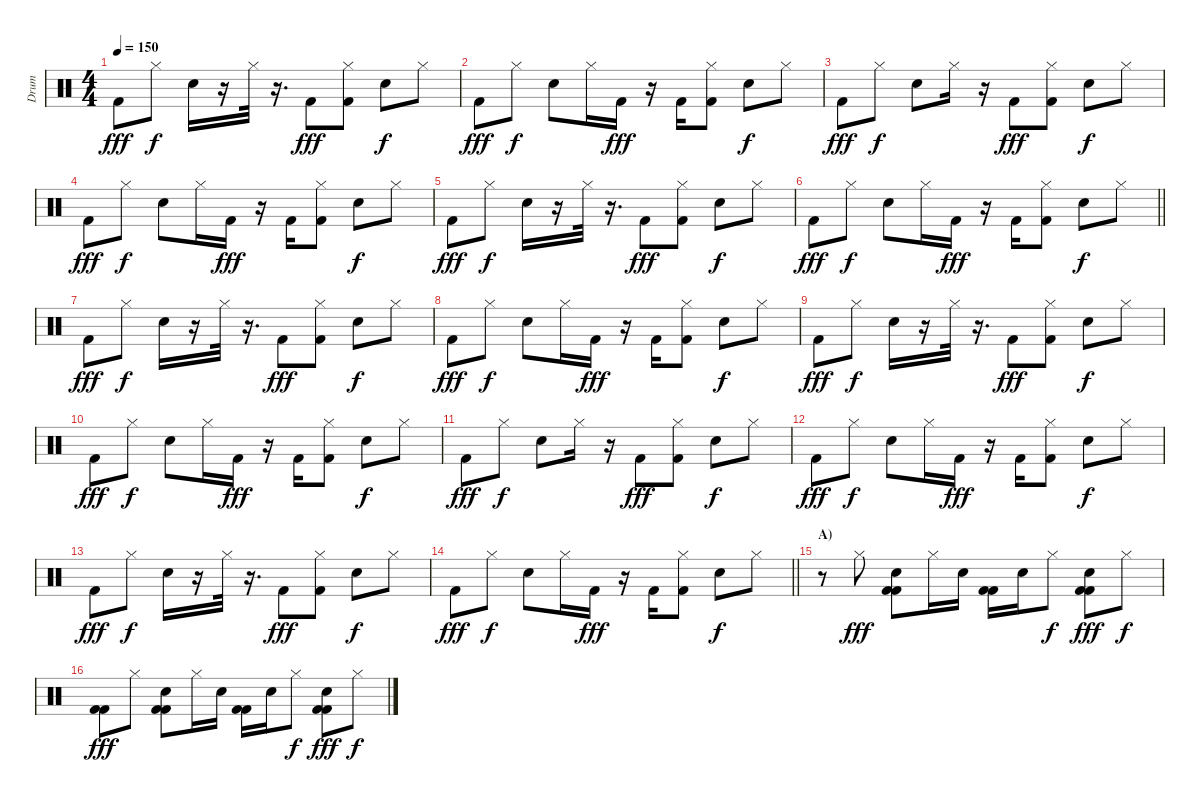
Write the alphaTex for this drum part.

\track ("Drum" "Drum") {instrument percussion}
\staff {score}
\articulation defaults
\ts (4 4)
\tempo 150
\clef neutral
\ks c "Kick (hit) 2".8{dy fff} "Hi-Hat (closed)".8{dy f} "Electric Snare (hit)".16
r.16 "Hi-Hat (closed)".32 r.16{d} "Kick (hit) 2".8{dy fff} ("Hi-Hat (closed)" "Kick (hit) 2").8 "Electric Snare (hit)".8{dy f} "Hi-Hat (closed)".8 |
"Kick (hit) 2".8{dy fff} "Hi-Hat (closed)".8{dy f} "Electric Snare (hit)".8 "Hi-Hat (closed)".16 "Kick (hit) 2".16{dy fff} r.16 "Kick (hit) 2".16 ("Hi-Hat (closed)" "Kick (hit) 2").8 "Electric Snare (hit)".8{dy f} "Hi-Hat (closed)".8 |
"Kick (hit) 2".8{dy fff} "Hi-Hat (closed)".8{dy f} "Electric Snare (hit)".8 "Hi-Hat (closed)".16 r.16 "Kick (hit) 2".8{dy fff} ("Hi-Hat (closed)" "Kick (hit) 2").8 "Electric Snare (hit)".8{dy f} "Hi-Hat (closed)".8 |
"Kick (hit) 2".8{dy fff} "Hi-Hat (closed)".8{dy f} "Electric Snare (hit)".8 "Hi-Hat (closed)".16 "Kick (hit) 2".16{dy fff} r.16 "Kick (hit) 2".16 ("Hi-Hat (closed)" "Kick (hit) 2").8 "Electric Snare (hit)".8{dy f} "Hi-Hat (closed)".8 |
"Kick (hit) 2".8{dy fff} "Hi-Hat (closed)".8{dy f} "Electric Snare (hit)".16 r.16 "Hi-Hat (closed)".32 r.16{d} "Kick (hit) 2".8{dy fff} ("Hi-Hat (closed)" "Kick (hit) 2").8 "Electric Snare (hit)".8{dy f} "Hi-Hat (closed)".8 |
\barLineRight lightlight "Kick (hit) 2".8{dy fff} "Hi-Hat (closed)".8{dy f} "Electric Snare (hit)".8 "Hi-Hat (closed)".16 "Kick (hit) 2".16{dy fff}
r.16 "Kick (hit) 2".16 ("Hi-Hat (closed)" "Kick (hit) 2").8 "Electric Snare (hit)".8{dy f} "Hi-Hat (closed)".8 |
"Kick (hit) 2".8{dy fff} "Hi-Hat (closed)".8{dy f} "Electric Snare (hit)".16 r.16 "Hi-Hat (closed)".32 r.16{d} "Kick (hit) 2".8{dy fff} ("Hi-Hat (closed)" "Kick (hit) 2").8 "Electric Snare (hit)".8{dy f} "Hi-Hat (closed)".8 |
"Kick (hit) 2".8{dy fff} "Hi-Hat (closed)".8{dy f} "Electric Snare (hit)".8 "Hi-Hat (closed)".16 "Kick (hit) 2".16{dy fff} r.16 "Kick (hit) 2".16 ("Hi-Hat (closed)" "Kick (hit) 2").8 "Electric Snare (hit)".8{dy f} "Hi-Hat (closed)".8 |
"Kick (hit) 2".8{dy fff} "Hi-Hat (closed)".8{dy f} "Electric Snare (hit)".16 r.16 "Hi-Hat (closed)".32 r.16{d} "Kick (hit) 2".8{dy fff} ("Hi-Hat (closed)" "Kick (hit) 2").8 "Electric Snare (hit)".8{dy f} "Hi-Hat (closed)".8 |
"Kick (hit) 2".8{dy fff} "Hi-Hat (closed)".8{dy f} "Electric Snare (hit)".8 "Hi-Hat (closed)".16 "Kick (hit) 2".16{dy fff} r.16 "Kick (hit) 2".16 ("Hi-Hat (closed)" "Kick (hit) 2").8 "Electric Snare (hit)".8{dy f} "Hi-Hat (closed)".8 |
"Kick (hit) 2".8{dy fff} "Hi-Hat (closed)".8{dy f} "Electric Snare (hit)".8 "Hi-Hat (closed)".16 r.16 "Kick (hit) 2".8{dy fff} ("Hi-Hat (closed)" "Kick (hit) 2").8 "Electric Snare (hit)".8{dy f} "Hi-Hat (closed)".8 |
"Kick (hit) 2".8{dy fff} "Hi-Hat (closed)".8{dy f} "Electric Snare (hit)".8 "Hi-Hat (closed)".16 "Kick (hit) 2".16{dy fff} r.16 "Kick (hit) 2".16 ("Hi-Hat (closed)" "Kick (hit) 2").8 "Electric Snare (hit)".8{dy f} "Hi-Hat (closed)".8 |
"Kick (hit) 2".8{dy fff} "Hi-Hat (closed)".8{dy f} "Electric Snare (hit)".16 r.16 "Hi-Hat (closed)".32 r.16{d} "Kick (hit) 2".8{dy fff} ("Hi-Hat (closed)" "Kick (hit) 2").8 "Electric Snare (hit)".8{dy f} "Hi-Hat (closed)".8 |
\barLineRight lightlight "Kick (hit) 2".8{dy fff} "Hi-Hat (closed)".8{dy f} "Electric Snare (hit)".8 "Hi-Hat (closed)".16 "Kick (hit) 2".16{dy fff}
r.16 "Kick (hit) 2".16 ("Hi-Hat (closed)" "Kick (hit) 2").8 "Electric Snare (hit)".8{dy f} "Hi-Hat (closed)".8 |
\section ("" "A)")
r.8 "Hi-Hat (closed)".8{dy fff} ("Kick (hit) 2" "Electric Snare (hit)" "Kick (hit) 2").8 "Hi-Hat (closed)".16 "Electric Snare (hit)".16 ("Kick (hit) 2" "Kick (hit) 2").16 "Electric Snare (hit)".16 "Hi-Hat (closed)".8{dy f} ("Kick (hit) 2" "Electric Snare (hit)" "Kick (hit) 2").8{dy fff} "Hi-Hat (closed)".8{dy f} |
("Kick (hit) 2" "Kick (hit) 2").8{dy fff} "Hi-Hat (closed)".8 ("Kick (hit) 2" "Electric Snare (hit)" "Kick (hit) 2").8 "Hi-Hat (closed)".16 "Electric Snare (hit)".16 ("Kick (hit) 2" "Kick (hit) 2").16 "Electric Snare (hit)".16 "Hi-Hat (closed)".8{dy f} ("Kick (hit) 2" "Electric Snare (hit)" "Kick (hit) 2").8{dy fff} "Hi-Hat (closed)".8{dy f}
